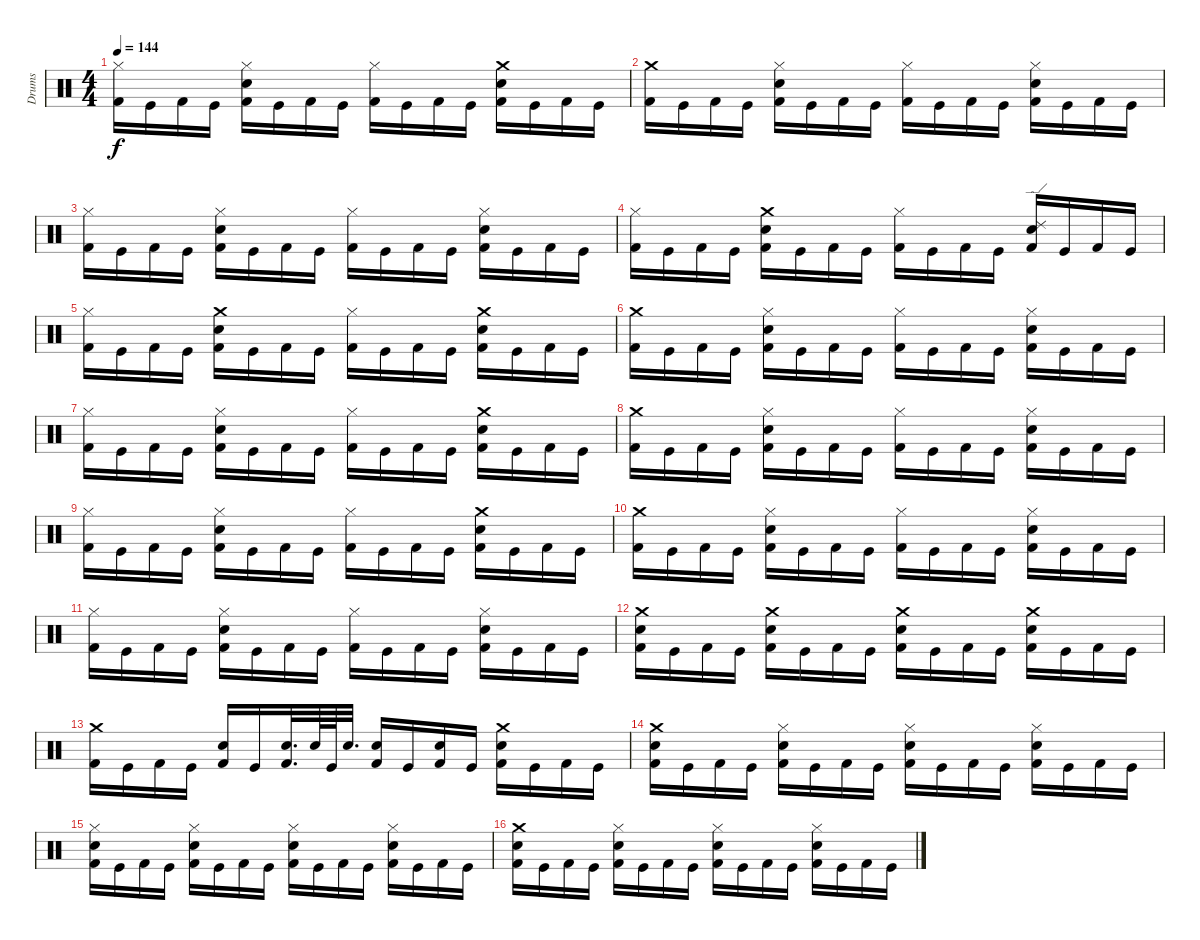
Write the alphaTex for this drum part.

\track ("Drums" "Drums") {instrument percussion}
\staff {score}
\articulation defaults
\ts (4 4)
\tempo 144
\clef neutral
\ks c
("Hi-Hat (closed)" "Kick (hit) 2").16{dy f} "Kick (hit)".16 "Kick (hit) 2".16 "Kick (hit)".16 ("Snare (hit) 2" "Hi-Hat (closed)" "Kick (hit) 2").16 "Kick (hit)".16 "Kick (hit) 2".16 "Kick (hit)".16 ("Hi-Hat (closed)" "Kick (hit) 2").16 "Kick (hit)".16 "Kick (hit) 2".16 "Kick (hit)".16 ("Crash medium (hit)" "Snare (hit) 2" "Kick (hit) 2").16 "Kick (hit)".16 "Kick (hit) 2".16 "Kick (hit)".16 |
("Crash medium (hit)" "Kick (hit) 2").16 "Kick (hit)".16 "Kick (hit) 2".16 "Kick (hit)".16 ("Snare (hit) 2" "Hi-Hat (closed)" "Kick (hit) 2").16 "Kick (hit)".16 "Kick (hit) 2".16 "Kick (hit)".16 ("Hi-Hat (closed)" "Kick (hit) 2").16 "Kick (hit)".16 "Kick (hit) 2".16 "Kick (hit)".16 ("Snare (hit) 2" "Hi-Hat (closed)" "Kick (hit) 2").16 "Kick (hit)".16 "Kick (hit) 2".16 "Kick (hit)".16 |
("Hi-Hat (closed)" "Kick (hit) 2").16 "Kick (hit)".16 "Kick (hit) 2".16 "Kick (hit)".16 ("Snare (hit) 2" "Hi-Hat (closed)" "Kick (hit) 2").16 "Kick (hit)".16 "Kick (hit) 2".16 "Kick (hit)".16 ("Hi-Hat (closed)" "Kick (hit) 2").16 "Kick (hit)".16 "Kick (hit) 2".16 "Kick (hit)".16 ("Snare (hit) 2" "Hi-Hat (closed)" "Kick (hit) 2").16 "Kick (hit)".16 "Kick (hit) 2".16 "Kick (hit)".16 |
("Hi-Hat (closed)" "Kick (hit) 2").16 "Kick (hit)".16 "Kick (hit) 2".16 "Kick (hit)".16 ("Crash medium (hit)" "Snare (hit) 2" "Kick (hit) 2").16 "Kick (hit)".16 "Kick (hit) 2".16 "Kick (hit)".16 ("Hi-Hat (closed)" "Kick (hit) 2").16 "Kick (hit)".16 "Kick (hit) 2".16 "Kick (hit)".16 ("Ride (edge) 2" "Snare (hit) 2" "Kick (hit) 2").16 "Kick (hit)".16 "Kick (hit) 2".16 "Kick (hit)".16 |
("Hi-Hat (closed)" "Kick (hit) 2").16 "Kick (hit)".16 "Kick (hit) 2".16 "Kick (hit)".16 ("Crash medium (hit)" "Snare (hit) 2" "Kick (hit) 2").16 "Kick (hit)".16 "Kick (hit) 2".16 "Kick (hit)".16 ("Hi-Hat (closed)" "Kick (hit) 2").16 "Kick (hit)".16 "Kick (hit) 2".16 "Kick (hit)".16 ("Crash medium (hit)" "Snare (hit) 2" "Kick (hit) 2").16 "Kick (hit)".16 "Kick (hit) 2".16 "Kick (hit)".16 |
("Crash medium (hit)" "Kick (hit) 2").16 "Kick (hit)".16 "Kick (hit) 2".16 "Kick (hit)".16 ("Snare (hit) 2" "Hi-Hat (closed)" "Kick (hit) 2").16 "Kick (hit)".16 "Kick (hit) 2".16 "Kick (hit)".16 ("Hi-Hat (closed)" "Kick (hit) 2").16 "Kick (hit)".16 "Kick (hit) 2".16 "Kick (hit)".16 ("Snare (hit) 2" "Hi-Hat (closed)" "Kick (hit) 2").16 "Kick (hit)".16 "Kick (hit) 2".16 "Kick (hit)".16 |
("Hi-Hat (closed)" "Kick (hit) 2").16 "Kick (hit)".16 "Kick (hit) 2".16 "Kick (hit)".16 ("Snare (hit) 2" "Hi-Hat (closed)" "Kick (hit) 2").16 "Kick (hit)".16 "Kick (hit) 2".16 "Kick (hit)".16 ("Hi-Hat (closed)" "Kick (hit) 2").16 "Kick (hit)".16 "Kick (hit) 2".16 "Kick (hit)".16 ("Crash medium (hit)" "Snare (hit) 2" "Kick (hit) 2").16 "Kick (hit)".16 "Kick (hit) 2".16 "Kick (hit)".16 |
("Crash medium (hit)" "Kick (hit) 2").16 "Kick (hit)".16 "Kick (hit) 2".16 "Kick (hit)".16 ("Snare (hit) 2" "Hi-Hat (closed)" "Kick (hit) 2").16 "Kick (hit)".16 "Kick (hit) 2".16 "Kick (hit)".16 ("Hi-Hat (closed)" "Kick (hit) 2").16 "Kick (hit)".16 "Kick (hit) 2".16 "Kick (hit)".16 ("Snare (hit) 2" "Hi-Hat (closed)" "Kick (hit) 2").16 "Kick (hit)".16 "Kick (hit) 2".16 "Kick (hit)".16 |
("Hi-Hat (closed)" "Kick (hit) 2").16 "Kick (hit)".16 "Kick (hit) 2".16 "Kick (hit)".16 ("Snare (hit) 2" "Hi-Hat (closed)" "Kick (hit) 2").16 "Kick (hit)".16 "Kick (hit) 2".16 "Kick (hit)".16 ("Hi-Hat (closed)" "Kick (hit) 2").16 "Kick (hit)".16 "Kick (hit) 2".16 "Kick (hit)".16 ("Crash medium (hit)" "Snare (hit) 2" "Kick (hit) 2").16 "Kick (hit)".16 "Kick (hit) 2".16 "Kick (hit)".16 |
("Crash medium (hit)" "Kick (hit) 2").16 "Kick (hit)".16 "Kick (hit) 2".16 "Kick (hit)".16 ("Snare (hit) 2" "Hi-Hat (closed)" "Kick (hit) 2").16 "Kick (hit)".16 "Kick (hit) 2".16 "Kick (hit)".16 ("Hi-Hat (closed)" "Kick (hit) 2").16 "Kick (hit)".16 "Kick (hit) 2".16 "Kick (hit)".16 ("Snare (hit) 2" "Hi-Hat (closed)" "Kick (hit) 2").16 "Kick (hit)".16 "Kick (hit) 2".16 "Kick (hit)".16 |
("Hi-Hat (closed)" "Kick (hit) 2").16 "Kick (hit)".16 "Kick (hit) 2".16 "Kick (hit)".16 ("Snare (hit) 2" "Hi-Hat (closed)" "Kick (hit) 2").16 "Kick (hit)".16 "Kick (hit) 2".16 "Kick (hit)".16 ("Hi-Hat (closed)" "Kick (hit) 2").16 "Kick (hit)".16 "Kick (hit) 2".16 "Kick (hit)".16 ("Snare (hit) 2" "Hi-Hat (closed)" "Kick (hit) 2").16 "Kick (hit)".16 "Kick (hit) 2".16 "Kick (hit)".16 |
("Crash medium (hit)" "Snare (hit) 2" "Kick (hit) 2").16 "Kick (hit)".16 "Kick (hit) 2".16 "Kick (hit)".16 ("Crash medium (hit)" "Snare (hit) 2" "Kick (hit) 2").16 "Kick (hit)".16 "Kick (hit) 2".16 "Kick (hit)".16 ("Crash medium (hit)" "Snare (hit) 2" "Kick (hit) 2").16 "Kick (hit)".16 "Kick (hit) 2".16 "Kick (hit)".16 ("Crash medium (hit)" "Snare (hit) 2" "Kick (hit) 2").16 "Kick (hit)".16 "Kick (hit) 2".16 "Kick (hit)".16 |
("Crash medium (hit)" "Kick (hit) 2").16 "Kick (hit)".16 "Kick (hit) 2".16 "Kick (hit)".16 ("Snare (hit) 2" "Kick (hit) 2").16 "Kick (hit)".16 ("Snare (hit) 2" "Kick (hit) 2").32{d} "Snare (hit) 2".64 "Kick (hit)".64 "Snare (hit) 2".32{d} ("Snare (hit) 2" "Kick (hit) 2").16 "Kick (hit)".16 ("Snare (hit) 2" "Kick (hit) 2").16 "Kick (hit)".16 ("Snare (hit) 2" "Crash medium (hit)" "Kick (hit) 2").16 "Kick (hit)".16 "Kick (hit) 2".16 "Kick (hit)".16 |
("Snare (hit) 2" "Crash medium (hit)" "Kick (hit) 2").16 "Kick (hit)".16 "Kick (hit) 2".16 "Kick (hit)".16 ("Hi-Hat (closed)" "Snare (hit) 2" "Kick (hit) 2").16 "Kick (hit)".16 "Kick (hit) 2".16 "Kick (hit)".16 ("Hi-Hat (closed)" "Snare (hit) 2" "Kick (hit) 2").16 "Kick (hit)".16 "Kick (hit) 2".16 "Kick (hit)".16 ("Hi-Hat (closed)" "Snare (hit) 2" "Kick (hit) 2").16 "Kick (hit)".16 "Kick (hit) 2".16 "Kick (hit)".16 |
("Hi-Hat (closed)" "Snare (hit) 2" "Kick (hit) 2").16 "Kick (hit)".16 "Kick (hit) 2".16 "Kick (hit)".16 ("Snare (hit) 2" "Hi-Hat (closed)" "Kick (hit) 2").16 "Kick (hit)".16 "Kick (hit) 2".16 "Kick (hit)".16 ("Hi-Hat (closed)" "Snare (hit) 2" "Kick (hit) 2").16 "Kick (hit)".16 "Kick (hit) 2".16 "Kick (hit)".16 ("Snare (hit) 2" "Hi-Hat (closed)" "Kick (hit) 2").16 "Kick (hit)".16 "Kick (hit) 2".16 "Kick (hit)".16 |
("Crash medium (hit)" "Snare (hit) 2" "Kick (hit) 2").16 "Kick (hit)".16 "Kick (hit) 2".16 "Kick (hit)".16 ("Hi-Hat (closed)" "Snare (hit) 2" "Kick (hit) 2").16 "Kick (hit)".16 "Kick (hit) 2".16 "Kick (hit)".16 ("Hi-Hat (closed)" "Snare (hit) 2" "Kick (hit) 2").16 "Kick (hit)".16 "Kick (hit) 2".16 "Kick (hit)".16 ("Hi-Hat (closed)" "Snare (hit) 2" "Kick (hit) 2").16 "Kick (hit)".16 "Kick (hit) 2".16 "Kick (hit)".16
